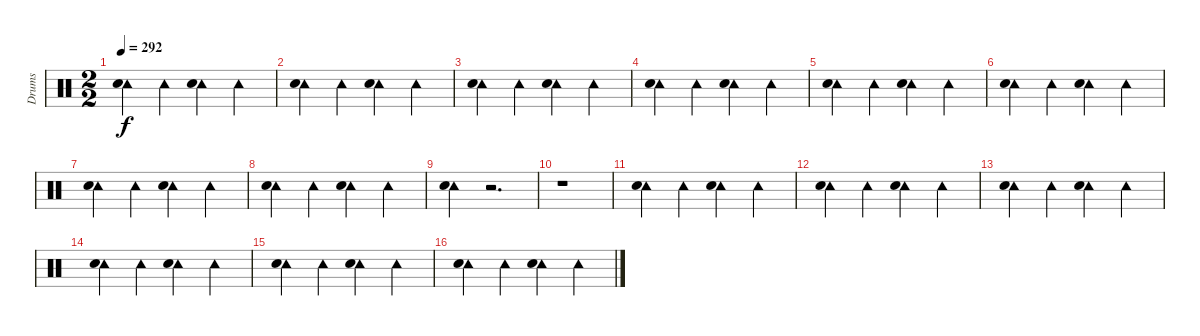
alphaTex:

\track ("Drums" "Drums") {instrument percussion}
\staff {score}
\articulation defaults
\ts (2 2)
\tempo 292
\clef neutral
\ks c
("Tambourine (hit)" "Electric Snare (hit)").4{dy f} "Tambourine (hit)".4 ("Tambourine (hit)" "Electric Snare (hit)").4 "Tambourine (hit)".4 |
("Tambourine (hit)" "Electric Snare (hit)").4 "Tambourine (hit)".4 ("Tambourine (hit)" "Electric Snare (hit)").4 "Tambourine (hit)".4 |
("Tambourine (hit)" "Electric Snare (hit)").4 "Tambourine (hit)".4 ("Tambourine (hit)" "Electric Snare (hit)").4 "Tambourine (hit)".4 |
("Tambourine (hit)" "Electric Snare (hit)").4 "Tambourine (hit)".4 ("Tambourine (hit)" "Electric Snare (hit)").4 "Tambourine (hit)".4 |
("Tambourine (hit)" "Electric Snare (hit)").4 "Tambourine (hit)".4 ("Tambourine (hit)" "Electric Snare (hit)").4 "Tambourine (hit)".4 |
("Tambourine (hit)" "Electric Snare (hit)").4 "Tambourine (hit)".4 ("Tambourine (hit)" "Electric Snare (hit)").4 "Tambourine (hit)".4 |
("Tambourine (hit)" "Electric Snare (hit)").4 "Tambourine (hit)".4 ("Tambourine (hit)" "Electric Snare (hit)").4 "Tambourine (hit)".4 |
("Tambourine (hit)" "Electric Snare (hit)").4 "Tambourine (hit)".4 ("Tambourine (hit)" "Electric Snare (hit)").4 "Tambourine (hit)".4 |
("Tambourine (hit)" "Electric Snare (hit)").4 r.2{d} |
r.1 |
("Tambourine (hit)" "Electric Snare (hit)").4 "Tambourine (hit)".4 ("Tambourine (hit)" "Electric Snare (hit)").4 "Tambourine (hit)".4 |
("Tambourine (hit)" "Electric Snare (hit)").4 "Tambourine (hit)".4 ("Tambourine (hit)" "Electric Snare (hit)").4 "Tambourine (hit)".4 |
("Tambourine (hit)" "Electric Snare (hit)").4 "Tambourine (hit)".4 ("Tambourine (hit)" "Electric Snare (hit)").4 "Tambourine (hit)".4 |
("Tambourine (hit)" "Electric Snare (hit)").4 "Tambourine (hit)".4 ("Tambourine (hit)" "Electric Snare (hit)").4 "Tambourine (hit)".4 |
("Tambourine (hit)" "Electric Snare (hit)").4 "Tambourine (hit)".4 ("Tambourine (hit)" "Electric Snare (hit)").4 "Tambourine (hit)".4 |
("Tambourine (hit)" "Electric Snare (hit)").4 "Tambourine (hit)".4 ("Tambourine (hit)" "Electric Snare (hit)").4 "Tambourine (hit)".4
